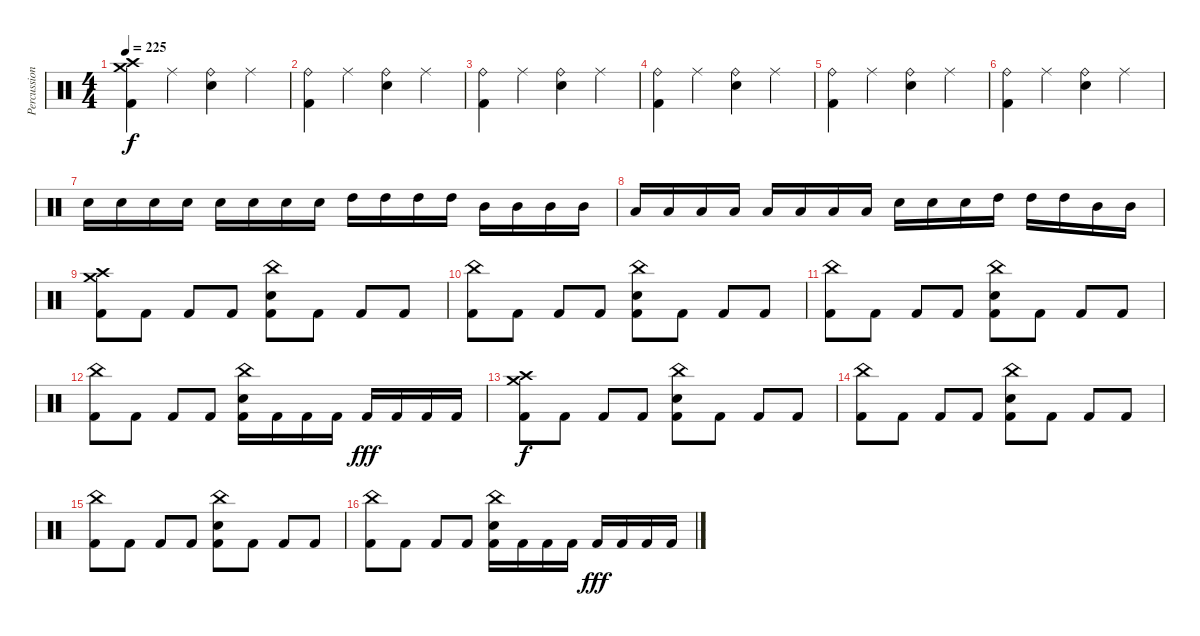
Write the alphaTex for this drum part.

\track ("Percussion" "Percussion") {instrument percussion}
\staff {score}
\articulation defaults
\ts (4 4)
\tempo 225
\clef neutral
\ks c
("Crash high (hit)" "Crash medium (hit)" "Kick (hit) 2").4{dy f} "Ride (middle)".4 ("Ride (bell)" "Snare (hit) 2").4 "Ride (middle)".4 |
("Ride (bell)" "Kick (hit) 2").4 "Ride (middle)".4 ("Ride (bell)" "Snare (hit) 2").4 "Ride (middle)".4 |
("Ride (bell)" "Kick (hit) 2").4 "Ride (middle)".4 ("Ride (bell)" "Snare (hit) 2").4 "Ride (middle)".4 |
("Ride (bell)" "Kick (hit) 2").4 "Ride (middle)".4 ("Ride (bell)" "Snare (hit) 2").4 "Ride (middle)".4 |
("Ride (bell)" "Kick (hit) 2").4 "Ride (middle)".4 ("Ride (bell)" "Snare (hit) 2").4 "Ride (middle)".4 |
("Ride (bell)" "Kick (hit) 2").4 "Ride (middle)".4 ("Ride (bell)" "Snare (hit) 2").4 "Ride (middle)".4 |
"Snare (hit) 2".16 "Snare (hit) 2".16 "Snare (hit) 2".16 "Snare (hit) 2".16 "Snare (hit) 2".16 "Snare (hit) 2".16 "Snare (hit) 2".16 "Snare (hit) 2".16 "High Tom (hit)".16 "High Tom (hit)".16 "High Tom (hit)".16 "High Tom (hit)".16 "Mid Tom (hit)".16 "Mid Tom (hit)".16 "Mid Tom (hit)".16 "Mid Tom (hit)".16 |
"Low Tom (hit)".16 "Low Tom (hit)".16 "Low Tom (hit)".16 "Low Tom (hit)".16 "Low Tom (hit)".16 "Low Tom (hit)".16 "Low Tom (hit)".16 "Low Tom (hit)".16 "Snare (hit) 2".16 "Snare (hit) 2".16 "Snare (hit) 2".16 "High Tom (hit)".16 "High Tom (hit)".16 "High Tom (hit)".16 "Mid Tom (hit)".16 "Mid Tom (hit)".16 |
("Crash high (hit)" "Crash medium (hit)" "Kick (hit) 2").8 "Kick (hit) 2".8 "Kick (hit) 2".8 "Kick (hit) 2".8 ("China (hit)" "Snare (hit) 2" "Kick (hit) 2").8 "Kick (hit) 2".8 "Kick (hit) 2".8 "Kick (hit) 2".8 |
("China (hit)" "Kick (hit) 2").8 "Kick (hit) 2".8 "Kick (hit) 2".8 "Kick (hit) 2".8 ("China (hit)" "Snare (hit) 2" "Kick (hit) 2").8 "Kick (hit) 2".8 "Kick (hit) 2".8 "Kick (hit) 2".8 |
("China (hit)" "Kick (hit) 2").8 "Kick (hit) 2".8 "Kick (hit) 2".8 "Kick (hit) 2".8 ("China (hit)" "Snare (hit) 2" "Kick (hit) 2").8 "Kick (hit) 2".8 "Kick (hit) 2".8 "Kick (hit) 2".8 |
("China (hit)" "Kick (hit) 2").8 "Kick (hit) 2".8 "Kick (hit) 2".8 "Kick (hit) 2".8 ("China (hit)" "Snare (hit) 2" "Kick (hit) 2").16 "Kick (hit) 2".16 "Kick (hit) 2".16 "Kick (hit) 2".16 "Kick (hit) 2".16{dy fff} "Kick (hit) 2".16 "Kick (hit) 2".16 "Kick (hit) 2".16 |
("Crash high (hit)" "Crash medium (hit)" "Kick (hit) 2").8{dy f} "Kick (hit) 2".8 "Kick (hit) 2".8 "Kick (hit) 2".8 ("China (hit)" "Snare (hit) 2" "Kick (hit) 2").8 "Kick (hit) 2".8 "Kick (hit) 2".8 "Kick (hit) 2".8 |
("China (hit)" "Kick (hit) 2").8 "Kick (hit) 2".8 "Kick (hit) 2".8 "Kick (hit) 2".8 ("China (hit)" "Snare (hit) 2" "Kick (hit) 2").8 "Kick (hit) 2".8 "Kick (hit) 2".8 "Kick (hit) 2".8 |
("China (hit)" "Kick (hit) 2").8 "Kick (hit) 2".8 "Kick (hit) 2".8 "Kick (hit) 2".8 ("China (hit)" "Snare (hit) 2" "Kick (hit) 2").8 "Kick (hit) 2".8 "Kick (hit) 2".8 "Kick (hit) 2".8 |
("China (hit)" "Kick (hit) 2").8 "Kick (hit) 2".8 "Kick (hit) 2".8 "Kick (hit) 2".8 ("China (hit)" "Snare (hit) 2" "Kick (hit) 2").16 "Kick (hit) 2".16 "Kick (hit) 2".16 "Kick (hit) 2".16 "Kick (hit) 2".16{dy fff} "Kick (hit) 2".16 "Kick (hit) 2".16 "Kick (hit) 2".16
